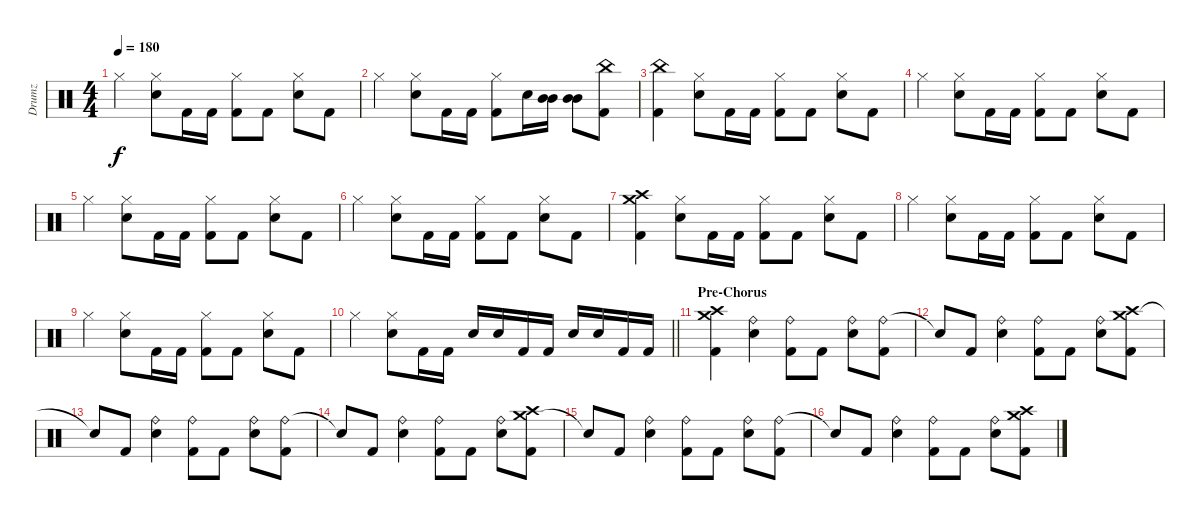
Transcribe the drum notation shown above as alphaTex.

\track ("Drumz" "Drumz") {instrument percussion}
\staff {score}
\articulation defaults
\ts (4 4)
\tempo 180
\clef neutral
\ks c "Hi-Hat (closed)".4{dy f}
("Hi-Hat (closed)" "Electric Snare (hit)").8 "Kick (hit) 2".16 "Kick (hit) 2".16 ("Hi-Hat (closed)" "Kick (hit) 2").8 "Kick (hit) 2".8 ("Hi-Hat (closed)" "Electric Snare (hit)").8 "Kick (hit) 2".8 |
"Hi-Hat (closed)".4 ("Hi-Hat (closed)" "Electric Snare (hit)").8 "Kick (hit) 2".16 "Kick (hit) 2".16 ("Hi-Hat (closed)" "Kick (hit) 2").8 "Electric Snare (hit)".16 ("Mid Tom (hit)" "Mid Tom (hit)").16 ("Mid Tom (hit)" "Mid Tom (hit)").8 ("China (hit)" "Kick (hit) 2").8 |
("China (hit)" "Kick (hit) 2").4 ("Hi-Hat (closed)" "Electric Snare (hit)").8 "Kick (hit) 2".16 "Kick (hit) 2".16 ("Hi-Hat (closed)" "Kick (hit) 2").8 "Kick (hit) 2".8 ("Hi-Hat (closed)" "Electric Snare (hit)").8 "Kick (hit) 2".8 |
"Hi-Hat (closed)".4 ("Hi-Hat (closed)" "Electric Snare (hit)").8 "Kick (hit) 2".16 "Kick (hit) 2".16 ("Hi-Hat (closed)" "Kick (hit) 2").8 "Kick (hit) 2".8 ("Hi-Hat (closed)" "Electric Snare (hit)").8 "Kick (hit) 2".8 |
"Hi-Hat (closed)".4 ("Hi-Hat (closed)" "Electric Snare (hit)").8 "Kick (hit) 2".16 "Kick (hit) 2".16 ("Hi-Hat (closed)" "Kick (hit) 2").8 "Kick (hit) 2".8 ("Hi-Hat (closed)" "Electric Snare (hit)").8 "Kick (hit) 2".8 |
"Hi-Hat (closed)".4 ("Hi-Hat (closed)" "Electric Snare (hit)").8 "Kick (hit) 2".16 "Kick (hit) 2".16 ("Hi-Hat (closed)" "Kick (hit) 2").8 "Kick (hit) 2".8 ("Hi-Hat (closed)" "Electric Snare (hit)").8 "Kick (hit) 2".8 |
("Crash medium (hit)" "Crash high (hit)" "Kick (hit) 2").4 ("Hi-Hat (closed)" "Electric Snare (hit)").8 "Kick (hit) 2".16 "Kick (hit) 2".16 ("Hi-Hat (closed)" "Kick (hit) 2").8 "Kick (hit) 2".8 ("Hi-Hat (closed)" "Electric Snare (hit)").8 "Kick (hit) 2".8 |
"Hi-Hat (closed)".4 ("Hi-Hat (closed)" "Electric Snare (hit)").8 "Kick (hit) 2".16 "Kick (hit) 2".16 ("Hi-Hat (closed)" "Kick (hit) 2").8 "Kick (hit) 2".8 ("Hi-Hat (closed)" "Electric Snare (hit)").8 "Kick (hit) 2".8 |
"Hi-Hat (closed)".4 ("Hi-Hat (closed)" "Electric Snare (hit)").8 "Kick (hit) 2".16 "Kick (hit) 2".16 ("Hi-Hat (closed)" "Kick (hit) 2").8 "Kick (hit) 2".8 ("Hi-Hat (closed)" "Electric Snare (hit)").8 "Kick (hit) 2".8 |
\barLineRight lightlight "Hi-Hat (closed)".4
("Hi-Hat (closed)" "Electric Snare (hit)").8 "Kick (hit) 2".16 "Kick (hit) 2".16 "Electric Snare (hit)".16 "Electric Snare (hit)".16 "Kick (hit) 2".16 "Kick (hit) 2".16 "Electric Snare (hit)".16 "Electric Snare (hit)".16 "Kick (hit) 2".16 "Kick (hit) 2".16 |
\section ("" "Pre-Chorus")
("Crash medium (hit)" "Crash high (hit)" "Kick (hit) 2").4 ("Ride (bell)" "Electric Snare (hit)").4 ("Ride (bell)" "Kick (hit) 2").8 "Kick (hit) 2".8 ("Ride (bell)" "Electric Snare (hit)").8 ("Ride (bell)" "Kick (hit) 2").8 |
"Snare (hit)"{t}.8 "Kick (hit) 2".8 ("Ride (bell)" "Electric Snare (hit)").4 ("Ride (bell)" "Kick (hit) 2").8 "Kick (hit) 2".8 ("Ride (bell)" "Electric Snare (hit)").8 ("Crash medium (hit)" "Crash high (hit)" "Kick (hit) 2").8 |
"Snare (hit)"{t}.8 "Kick (hit) 2".8 ("Ride (bell)" "Electric Snare (hit)").4 ("Ride (bell)" "Kick (hit) 2").8 "Kick (hit) 2".8 ("Ride (bell)" "Electric Snare (hit)").8 ("Ride (bell)" "Kick (hit) 2").8 |
"Snare (hit)"{t}.8 "Kick (hit) 2".8 ("Ride (bell)" "Electric Snare (hit)").4 ("Ride (bell)" "Kick (hit) 2").8 "Kick (hit) 2".8 ("Ride (bell)" "Electric Snare (hit)").8 ("Crash medium (hit)" "Crash high (hit)" "Kick (hit) 2").8 |
"Snare (hit)"{t}.8 "Kick (hit) 2".8 ("Ride (bell)" "Electric Snare (hit)").4 ("Ride (bell)" "Kick (hit) 2").8 "Kick (hit) 2".8 ("Ride (bell)" "Electric Snare (hit)").8 ("Ride (bell)" "Kick (hit) 2").8 |
"Snare (hit)"{t}.8 "Kick (hit) 2".8 ("Ride (bell)" "Electric Snare (hit)").4 ("Ride (bell)" "Kick (hit) 2").8 "Kick (hit) 2".8 ("Ride (bell)" "Electric Snare (hit)").8 ("Crash medium (hit)" "Crash high (hit)" "Kick (hit) 2").8
